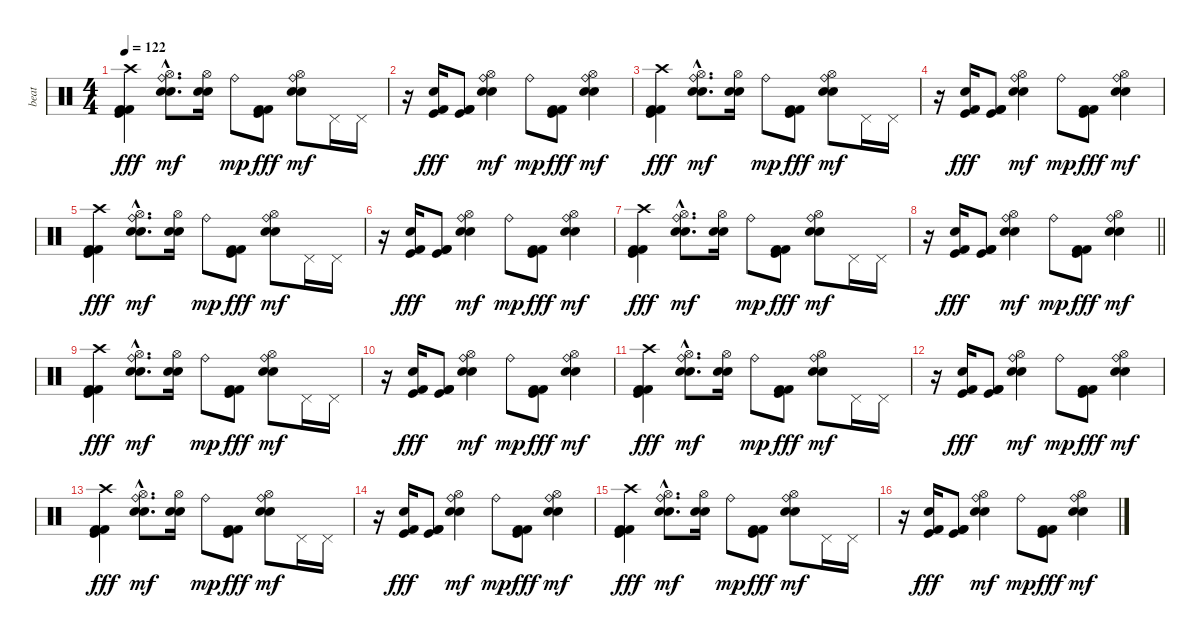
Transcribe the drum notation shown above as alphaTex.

\track ("beat" "beat") {instrument percussion}
\staff {score}
\articulation defaults
\ts (4 4)
\tempo 122
\clef neutral
\ks c
("Kick (hit)" "Kick (hit) 2" "Kick (hit) 2" "Crash high (hit)").4{dy fff} ("Ride (bell)"{hac} "Snare (hit) 2"{hac} "Electric Snare (hit)"{hac} "Hi-Hat (open)"{hac}).8{d dy mf} ("Snare (hit) 2" "Electric Snare (hit)" "Hi-Hat (open)").16 "Ride (bell)".8{dy mp} ("Kick (hit)" "Kick (hit) 2" "Kick (hit) 2").8{dy fff} ("Ride (bell)" "Snare (hit) 2" "Electric Snare (hit)" "Hi-Hat (open)").8{dy mf} "Pedal Hi-Hat (hit)".16 "Pedal Hi-Hat (hit)".16 |
r.16 ("Kick (hit)" "Kick (hit) 2" "Snare (hit) 2").16{dy fff} ("Kick (hit)" "Kick (hit) 2" "Kick (hit) 2").8 ("Ride (bell)" "Snare (hit) 2" "Electric Snare (hit)" "Hi-Hat (open)").4{dy mf} "Ride (bell)".8{dy mp} ("Kick (hit)" "Kick (hit) 2" "Kick (hit) 2").8{dy fff} ("Ride (bell)" "Snare (hit) 2" "Electric Snare (hit)" "Hi-Hat (open)").4{dy mf} |
("Kick (hit)" "Kick (hit) 2" "Kick (hit) 2" "Crash high (hit)").4{dy fff} ("Ride (bell)"{hac} "Snare (hit) 2"{hac} "Electric Snare (hit)"{hac} "Hi-Hat (open)"{hac}).8{d dy mf} ("Snare (hit) 2" "Electric Snare (hit)" "Hi-Hat (open)").16 "Ride (bell)".8{dy mp} ("Kick (hit)" "Kick (hit) 2" "Kick (hit) 2").8{dy fff} ("Ride (bell)" "Snare (hit) 2" "Electric Snare (hit)" "Hi-Hat (open)").8{dy mf} "Pedal Hi-Hat (hit)".16 "Pedal Hi-Hat (hit)".16 |
r.16 ("Kick (hit)" "Kick (hit) 2" "Snare (hit) 2").16{dy fff} ("Kick (hit)" "Kick (hit) 2" "Kick (hit) 2").8 ("Ride (bell)" "Snare (hit) 2" "Electric Snare (hit)" "Hi-Hat (open)").4{dy mf} "Ride (bell)".8{dy mp} ("Kick (hit)" "Kick (hit) 2" "Kick (hit) 2").8{dy fff} ("Ride (bell)" "Snare (hit) 2" "Electric Snare (hit)" "Hi-Hat (open)").4{dy mf} |
("Kick (hit)" "Kick (hit) 2" "Kick (hit) 2" "Crash high (hit)").4{dy fff} ("Ride (bell)"{hac} "Snare (hit) 2"{hac} "Electric Snare (hit)"{hac} "Hi-Hat (open)"{hac}).8{d dy mf} ("Snare (hit) 2" "Electric Snare (hit)" "Hi-Hat (open)").16 "Ride (bell)".8{dy mp} ("Kick (hit)" "Kick (hit) 2" "Kick (hit) 2").8{dy fff} ("Ride (bell)" "Snare (hit) 2" "Electric Snare (hit)" "Hi-Hat (open)").8{dy mf} "Pedal Hi-Hat (hit)".16 "Pedal Hi-Hat (hit)".16 |
r.16 ("Kick (hit)" "Kick (hit) 2" "Snare (hit) 2").16{dy fff} ("Kick (hit)" "Kick (hit) 2" "Kick (hit) 2").8 ("Ride (bell)" "Snare (hit) 2" "Electric Snare (hit)" "Hi-Hat (open)").4{dy mf} "Ride (bell)".8{dy mp} ("Kick (hit)" "Kick (hit) 2" "Kick (hit) 2").8{dy fff} ("Ride (bell)" "Snare (hit) 2" "Electric Snare (hit)" "Hi-Hat (open)").4{dy mf} |
("Kick (hit)" "Kick (hit) 2" "Kick (hit) 2" "Crash high (hit)").4{dy fff} ("Ride (bell)"{hac} "Snare (hit) 2"{hac} "Electric Snare (hit)"{hac} "Hi-Hat (open)"{hac}).8{d dy mf} ("Snare (hit) 2" "Electric Snare (hit)" "Hi-Hat (open)").16 "Ride (bell)".8{dy mp} ("Kick (hit)" "Kick (hit) 2" "Kick (hit) 2").8{dy fff} ("Ride (bell)" "Snare (hit) 2" "Electric Snare (hit)" "Hi-Hat (open)").8{dy mf} "Pedal Hi-Hat (hit)".16 "Pedal Hi-Hat (hit)".16 |
\barLineRight lightlight
r.16 ("Kick (hit)" "Kick (hit) 2" "Snare (hit) 2").16{dy fff} ("Kick (hit)" "Kick (hit) 2" "Kick (hit) 2").8 ("Ride (bell)" "Snare (hit) 2" "Electric Snare (hit)" "Hi-Hat (open)").4{dy mf} "Ride (bell)".8{dy mp} ("Kick (hit)" "Kick (hit) 2" "Kick (hit) 2").8{dy fff} ("Ride (bell)" "Snare (hit) 2" "Electric Snare (hit)" "Hi-Hat (open)").4{dy mf} |
("Kick (hit)" "Kick (hit) 2" "Kick (hit) 2" "Crash high (hit)").4{dy fff} ("Ride (bell)"{hac} "Snare (hit) 2"{hac} "Electric Snare (hit)"{hac} "Hi-Hat (open)"{hac}).8{d dy mf} ("Snare (hit) 2" "Electric Snare (hit)" "Hi-Hat (open)").16 "Ride (bell)".8{dy mp} ("Kick (hit)" "Kick (hit) 2" "Kick (hit) 2").8{dy fff} ("Ride (bell)" "Snare (hit) 2" "Electric Snare (hit)" "Hi-Hat (open)").8{dy mf} "Pedal Hi-Hat (hit)".16 "Pedal Hi-Hat (hit)".16 |
r.16 ("Kick (hit)" "Kick (hit) 2" "Snare (hit) 2").16{dy fff} ("Kick (hit)" "Kick (hit) 2" "Kick (hit) 2").8 ("Ride (bell)" "Snare (hit) 2" "Electric Snare (hit)" "Hi-Hat (open)").4{dy mf} "Ride (bell)".8{dy mp} ("Kick (hit)" "Kick (hit) 2" "Kick (hit) 2").8{dy fff} ("Ride (bell)" "Snare (hit) 2" "Electric Snare (hit)" "Hi-Hat (open)").4{dy mf} |
("Kick (hit)" "Kick (hit) 2" "Kick (hit) 2" "Crash high (hit)").4{dy fff} ("Ride (bell)"{hac} "Snare (hit) 2"{hac} "Electric Snare (hit)"{hac} "Hi-Hat (open)"{hac}).8{d dy mf} ("Snare (hit) 2" "Electric Snare (hit)" "Hi-Hat (open)").16 "Ride (bell)".8{dy mp} ("Kick (hit)" "Kick (hit) 2" "Kick (hit) 2").8{dy fff} ("Ride (bell)" "Snare (hit) 2" "Electric Snare (hit)" "Hi-Hat (open)").8{dy mf} "Pedal Hi-Hat (hit)".16 "Pedal Hi-Hat (hit)".16 |
r.16 ("Kick (hit)" "Kick (hit) 2" "Snare (hit) 2").16{dy fff} ("Kick (hit)" "Kick (hit) 2" "Kick (hit) 2").8 ("Ride (bell)" "Snare (hit) 2" "Electric Snare (hit)" "Hi-Hat (open)").4{dy mf} "Ride (bell)".8{dy mp} ("Kick (hit)" "Kick (hit) 2" "Kick (hit) 2").8{dy fff} ("Ride (bell)" "Snare (hit) 2" "Electric Snare (hit)" "Hi-Hat (open)").4{dy mf} |
("Kick (hit)" "Kick (hit) 2" "Kick (hit) 2" "Crash high (hit)").4{dy fff} ("Ride (bell)"{hac} "Snare (hit) 2"{hac} "Electric Snare (hit)"{hac} "Hi-Hat (open)"{hac}).8{d dy mf} ("Snare (hit) 2" "Electric Snare (hit)" "Hi-Hat (open)").16 "Ride (bell)".8{dy mp} ("Kick (hit)" "Kick (hit) 2" "Kick (hit) 2").8{dy fff} ("Ride (bell)" "Snare (hit) 2" "Electric Snare (hit)" "Hi-Hat (open)").8{dy mf} "Pedal Hi-Hat (hit)".16 "Pedal Hi-Hat (hit)".16 |
r.16 ("Kick (hit)" "Kick (hit) 2" "Snare (hit) 2").16{dy fff} ("Kick (hit)" "Kick (hit) 2" "Kick (hit) 2").8 ("Ride (bell)" "Snare (hit) 2" "Electric Snare (hit)" "Hi-Hat (open)").4{dy mf} "Ride (bell)".8{dy mp} ("Kick (hit)" "Kick (hit) 2" "Kick (hit) 2").8{dy fff} ("Ride (bell)" "Snare (hit) 2" "Electric Snare (hit)" "Hi-Hat (open)").4{dy mf} |
("Kick (hit)" "Kick (hit) 2" "Kick (hit) 2" "Crash high (hit)").4{dy fff} ("Ride (bell)"{hac} "Snare (hit) 2"{hac} "Electric Snare (hit)"{hac} "Hi-Hat (open)"{hac}).8{d dy mf} ("Snare (hit) 2" "Electric Snare (hit)" "Hi-Hat (open)").16 "Ride (bell)".8{dy mp} ("Kick (hit)" "Kick (hit) 2" "Kick (hit) 2").8{dy fff} ("Ride (bell)" "Snare (hit) 2" "Electric Snare (hit)" "Hi-Hat (open)").8{dy mf} "Pedal Hi-Hat (hit)".16 "Pedal Hi-Hat (hit)".16 |
r.16 ("Kick (hit)" "Kick (hit) 2" "Snare (hit) 2").16{dy fff} ("Kick (hit)" "Kick (hit) 2" "Kick (hit) 2").8 ("Ride (bell)" "Snare (hit) 2" "Electric Snare (hit)" "Hi-Hat (open)").4{dy mf} "Ride (bell)".8{dy mp} ("Kick (hit)" "Kick (hit) 2" "Kick (hit) 2").8{dy fff} ("Ride (bell)" "Snare (hit) 2" "Electric Snare (hit)" "Hi-Hat (open)").4{dy mf}
